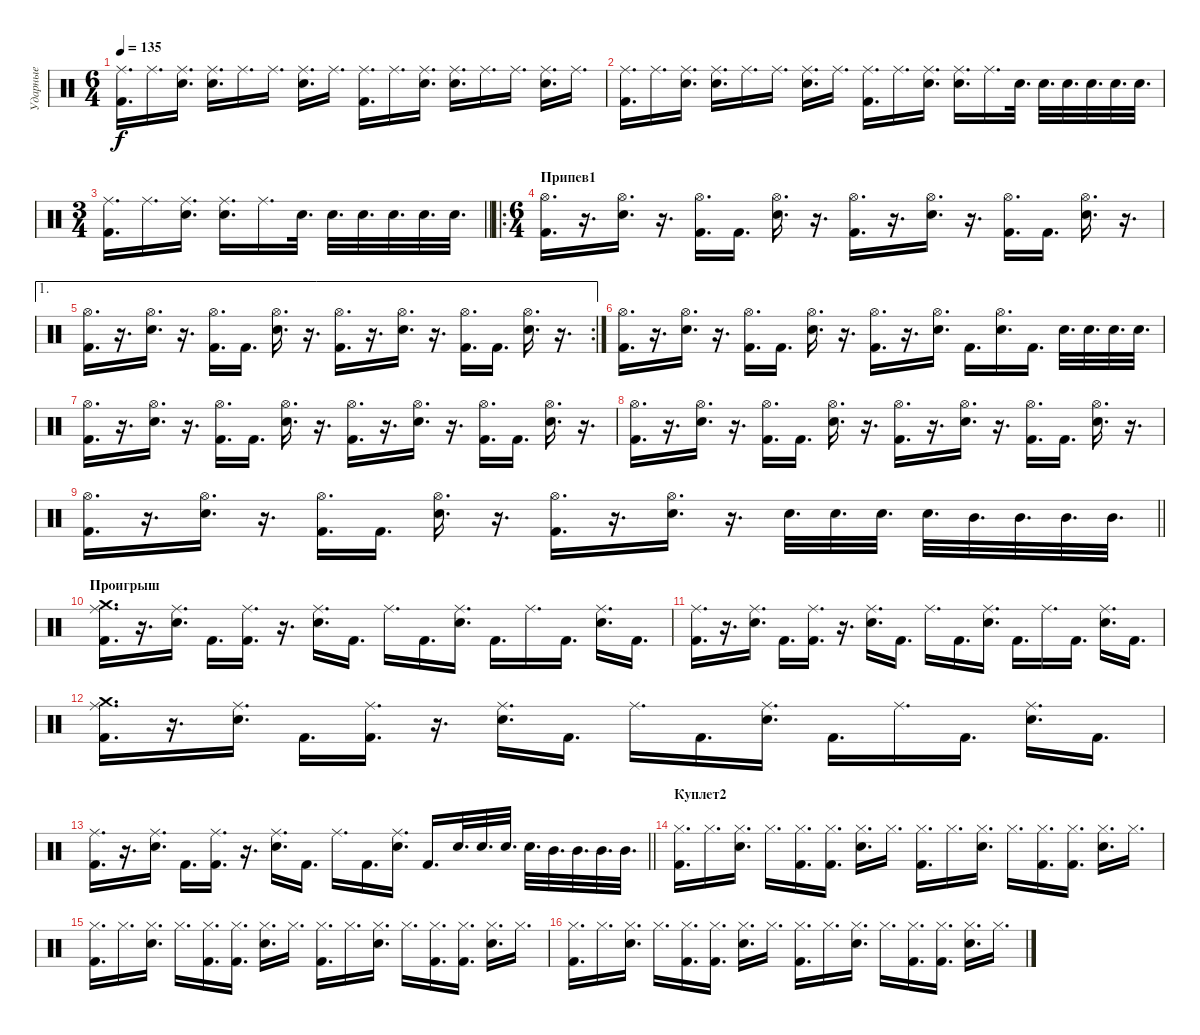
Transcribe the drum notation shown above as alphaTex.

\track ("Ударные" "Ударные") {instrument percussion}
\staff {score}
\articulation defaults
\ts (6 4)
\tempo 135
\clef neutral
\ks c
("Ride (middle)" "Kick (hit) 2").16{d dy f} "Ride (middle)".16{d} ("Ride (middle)" "Electric Snare (hit)").16{d} ("Ride (middle)" "Electric Snare (hit)").16{d} "Ride (middle)".16{d} "Ride (middle)".16{d} ("Ride (middle)" "Electric Snare (hit)").16{d} "Ride (middle)".16{d} ("Ride (middle)" "Kick (hit) 2").16{d} "Ride (middle)".16{d} ("Ride (middle)" "Electric Snare (hit)").16{d} ("Ride (middle)" "Electric Snare (hit)").16{d} "Ride (middle)".16{d} "Ride (middle)".16{d} ("Ride (middle)" "Electric Snare (hit)").16{d} "Ride (middle)".16{d} |
("Ride (middle)" "Kick (hit) 2").16{d} "Ride (middle)".16{d} ("Ride (middle)" "Electric Snare (hit)").16{d} ("Ride (middle)" "Electric Snare (hit)").16{d} "Ride (middle)".16{d} "Ride (middle)".16{d} ("Ride (middle)" "Electric Snare (hit)").16{d} "Ride (middle)".16{d} ("Ride (middle)" "Kick (hit) 2").16{d} "Ride (middle)".16{d} ("Ride (middle)" "Electric Snare (hit)").16{d} ("Ride (middle)" "Electric Snare (hit)").16{d} "Ride (middle)".16{d} "Electric Snare (hit)".32{d} "Electric Snare (hit)".32{d} "Electric Snare (hit)".32{d} "Electric Snare (hit)".32{d} "Electric Snare (hit)".32{d} "Electric Snare (hit)".32{d} |
\ts (3 4)
\barLineRight lightlight
("Ride (middle)" "Kick (hit) 2").16{d} "Ride (middle)".16{d} ("Ride (middle)" "Electric Snare (hit)").16{d} ("Ride (middle)" "Electric Snare (hit)").16{d} "Ride (middle)".16{d} "Electric Snare (hit)".32{d} "Electric Snare (hit)".32{d} "Electric Snare (hit)".32{d} "Electric Snare (hit)".32{d} "Electric Snare (hit)".32{d} "Electric Snare (hit)".32{d} |
\ro
\ts (6 4)
\section ("" "Припев1")
("Hi-Hat (open)" "Kick (hit) 2").16{d} r.16{d} ("Hi-Hat (open)" "Electric Snare (hit)").16{d} r.16{d} ("Hi-Hat (open)" "Kick (hit) 2").16{d} "Kick (hit) 2".16{d} ("Hi-Hat (open)" "Electric Snare (hit)").16{d} r.16{d} ("Hi-Hat (open)" "Kick (hit) 2").16{d} r.16{d} ("Hi-Hat (open)" "Electric Snare (hit)").16{d} r.16{d} ("Hi-Hat (open)" "Kick (hit) 2").16{d} "Kick (hit) 2".16{d} ("Hi-Hat (open)" "Electric Snare (hit)").16{d} r.16{d} |
\ae 1
\rc 2
("Hi-Hat (open)" "Kick (hit) 2").16{d} r.16{d} ("Hi-Hat (open)" "Electric Snare (hit)").16{d} r.16{d} ("Hi-Hat (open)" "Kick (hit) 2").16{d} "Kick (hit) 2".16{d} ("Hi-Hat (open)" "Electric Snare (hit)").16{d} r.16{d} ("Hi-Hat (open)" "Kick (hit) 2").16{d} r.16{d} ("Hi-Hat (open)" "Electric Snare (hit)").16{d} r.16{d} ("Hi-Hat (open)" "Kick (hit) 2").16{d} "Kick (hit) 2".16{d} ("Hi-Hat (open)" "Electric Snare (hit)").16{d} r.16{d} |
("Hi-Hat (open)" "Kick (hit) 2").16{d} r.16{d} ("Hi-Hat (open)" "Electric Snare (hit)").16{d} r.16{d} ("Hi-Hat (open)" "Kick (hit) 2").16{d} "Kick (hit) 2".16{d} ("Hi-Hat (open)" "Electric Snare (hit)").16{d} r.16{d} ("Hi-Hat (open)" "Kick (hit) 2").16{d} r.16{d} ("Hi-Hat (open)" "Electric Snare (hit)").16{d} "Kick (hit) 2".16{d} ("Hi-Hat (open)" "Electric Snare (hit)").16{d} "Kick (hit) 2".16{d} "Electric Snare (hit)".32{d} "Electric Snare (hit)".32{d} "Electric Snare (hit)".32{d} "Electric Snare (hit)".32{d} |
("Hi-Hat (open)" "Kick (hit) 2").16{d} r.16{d} ("Hi-Hat (open)" "Electric Snare (hit)").16{d} r.16{d} ("Hi-Hat (open)" "Kick (hit) 2").16{d} "Kick (hit) 2".16{d} ("Hi-Hat (open)" "Electric Snare (hit)").16{d} r.16{d} ("Hi-Hat (open)" "Kick (hit) 2").16{d} r.16{d} ("Hi-Hat (open)" "Electric Snare (hit)").16{d} r.16{d} ("Hi-Hat (open)" "Kick (hit) 2").16{d} "Kick (hit) 2".16{d} ("Hi-Hat (open)" "Electric Snare (hit)").16{d} r.16{d} |
("Hi-Hat (open)" "Kick (hit) 2").16{d} r.16{d} ("Hi-Hat (open)" "Electric Snare (hit)").16{d} r.16{d} ("Hi-Hat (open)" "Kick (hit) 2").16{d} "Kick (hit) 2".16{d} ("Hi-Hat (open)" "Electric Snare (hit)").16{d} r.16{d} ("Hi-Hat (open)" "Kick (hit) 2").16{d} r.16{d} ("Hi-Hat (open)" "Electric Snare (hit)").16{d} r.16{d} ("Hi-Hat (open)" "Kick (hit) 2").16{d} "Kick (hit) 2".16{d} ("Hi-Hat (open)" "Electric Snare (hit)").16{d} r.16{d} |
\barLineRight lightlight
("Hi-Hat (open)" "Kick (hit) 2").16{d} r.16{d} ("Hi-Hat (open)" "Electric Snare (hit)").16{d} r.16{d} ("Hi-Hat (open)" "Kick (hit) 2").16{d} "Kick (hit) 2".16{d} ("Hi-Hat (open)" "Electric Snare (hit)").16{d} r.16{d} ("Hi-Hat (open)" "Kick (hit) 2").16{d} r.16{d} ("Hi-Hat (open)" "Electric Snare (hit)").16{d} r.16{d} "Electric Snare (hit)".32{d} "Electric Snare (hit)".32{d} "Electric Snare (hit)".32{d} "Electric Snare (hit)".32{d} "Mid Tom (hit)".32{d} "Mid Tom (hit)".32{d} "Mid Tom (hit)".32{d} "Mid Tom (hit)".32{d} |
\section ("" "Проигрыш")
("Ride (middle)" "Crash medium (hit)" "Kick (hit) 2").16{d} r.16{d} ("Ride (middle)" "Electric Snare (hit)").16{d} "Kick (hit) 2".16{d} ("Ride (middle)" "Kick (hit) 2").16{d} r.16{d} ("Ride (middle)" "Electric Snare (hit)").16{d} "Kick (hit) 2".16{d} "Ride (middle)".16{d} "Kick (hit) 2".16{d} ("Ride (middle)" "Electric Snare (hit)").16{d} "Kick (hit) 2".16{d} "Ride (middle)".16{d} "Kick (hit) 2".16{d} ("Ride (middle)" "Electric Snare (hit)").16{d} "Kick (hit) 2".16{d} |
("Ride (middle)" "Kick (hit) 2").16{d} r.16{d} ("Ride (middle)" "Electric Snare (hit)").16{d} "Kick (hit) 2".16{d} ("Ride (middle)" "Kick (hit) 2").16{d} r.16{d} ("Ride (middle)" "Electric Snare (hit)").16{d} "Kick (hit) 2".16{d} "Ride (middle)".16{d} "Kick (hit) 2".16{d} ("Ride (middle)" "Electric Snare (hit)").16{d} "Kick (hit) 2".16{d} "Ride (middle)".16{d} "Kick (hit) 2".16{d} ("Ride (middle)" "Electric Snare (hit)").16{d} "Kick (hit) 2".16{d} |
("Ride (middle)" "Crash medium (hit)" "Kick (hit) 2").16{d} r.16{d} ("Ride (middle)" "Electric Snare (hit)").16{d} "Kick (hit) 2".16{d} ("Ride (middle)" "Kick (hit) 2").16{d} r.16{d} ("Ride (middle)" "Electric Snare (hit)").16{d} "Kick (hit) 2".16{d} "Ride (middle)".16{d} "Kick (hit) 2".16{d} ("Ride (middle)" "Electric Snare (hit)").16{d} "Kick (hit) 2".16{d} "Ride (middle)".16{d} "Kick (hit) 2".16{d} ("Ride (middle)" "Electric Snare (hit)").16{d} "Kick (hit) 2".16{d} |
\barLineRight lightlight
("Ride (middle)" "Kick (hit) 2").16{d} r.16{d} ("Ride (middle)" "Electric Snare (hit)").16{d} "Kick (hit) 2".16{d} ("Ride (middle)" "Kick (hit) 2").16{d} r.16{d} ("Ride (middle)" "Electric Snare (hit)").16{d} "Kick (hit) 2".16{d} "Ride (middle)".16{d} "Kick (hit) 2".16{d} ("Ride (middle)" "Electric Snare (hit)").16{d} "Kick (hit) 2".16{d} "Electric Snare (hit)".32{d} "Electric Snare (hit)".32{d} "Electric Snare (hit)".32{d} "Electric Snare (hit)".32{d} "Mid Tom (hit)".32{d} "Mid Tom (hit)".32{d} "Mid Tom (hit)".32{d} "Mid Tom (hit)".32{d} |
\section ("" "Куплет2")
("Hi-Hat (closed)" "Kick (hit) 2").16{d} "Hi-Hat (closed)".16{d} ("Hi-Hat (closed)" "Electric Snare (hit)").16{d} "Hi-Hat (closed)".16{d} ("Hi-Hat (closed)" "Kick (hit) 2").16{d} ("Hi-Hat (closed)" "Kick (hit) 2").16{d} ("Hi-Hat (closed)" "Electric Snare (hit)").16{d} "Hi-Hat (closed)".16{d} ("Hi-Hat (closed)" "Kick (hit) 2").16{d} "Hi-Hat (closed)".16{d} ("Hi-Hat (closed)" "Electric Snare (hit)").16{d} "Hi-Hat (closed)".16{d} ("Hi-Hat (closed)" "Kick (hit) 2").16{d} ("Hi-Hat (closed)" "Kick (hit) 2").16{d} ("Hi-Hat (closed)" "Electric Snare (hit)").16{d} "Hi-Hat (closed)".16{d} |
("Hi-Hat (closed)" "Kick (hit) 2").16{d} "Hi-Hat (closed)".16{d} ("Hi-Hat (closed)" "Electric Snare (hit)").16{d} "Hi-Hat (closed)".16{d} ("Hi-Hat (closed)" "Kick (hit) 2").16{d} ("Hi-Hat (closed)" "Kick (hit) 2").16{d} ("Hi-Hat (closed)" "Electric Snare (hit)").16{d} "Hi-Hat (closed)".16{d} ("Hi-Hat (closed)" "Kick (hit) 2").16{d} "Hi-Hat (closed)".16{d} ("Hi-Hat (closed)" "Electric Snare (hit)").16{d} "Hi-Hat (closed)".16{d} ("Hi-Hat (closed)" "Kick (hit) 2").16{d} ("Hi-Hat (closed)" "Kick (hit) 2").16{d} ("Hi-Hat (closed)" "Electric Snare (hit)").16{d} "Hi-Hat (closed)".16{d} |
("Hi-Hat (closed)" "Kick (hit) 2").16{d} "Hi-Hat (closed)".16{d} ("Hi-Hat (closed)" "Electric Snare (hit)").16{d} "Hi-Hat (closed)".16{d} ("Hi-Hat (closed)" "Kick (hit) 2").16{d} ("Hi-Hat (closed)" "Kick (hit) 2").16{d} ("Hi-Hat (closed)" "Electric Snare (hit)").16{d} "Hi-Hat (closed)".16{d} ("Hi-Hat (closed)" "Kick (hit) 2").16{d} "Hi-Hat (closed)".16{d} ("Hi-Hat (closed)" "Electric Snare (hit)").16{d} "Hi-Hat (closed)".16{d} ("Hi-Hat (closed)" "Kick (hit) 2").16{d} ("Hi-Hat (closed)" "Kick (hit) 2").16{d} ("Hi-Hat (closed)" "Electric Snare (hit)").16{d} "Hi-Hat (closed)".16{d}
